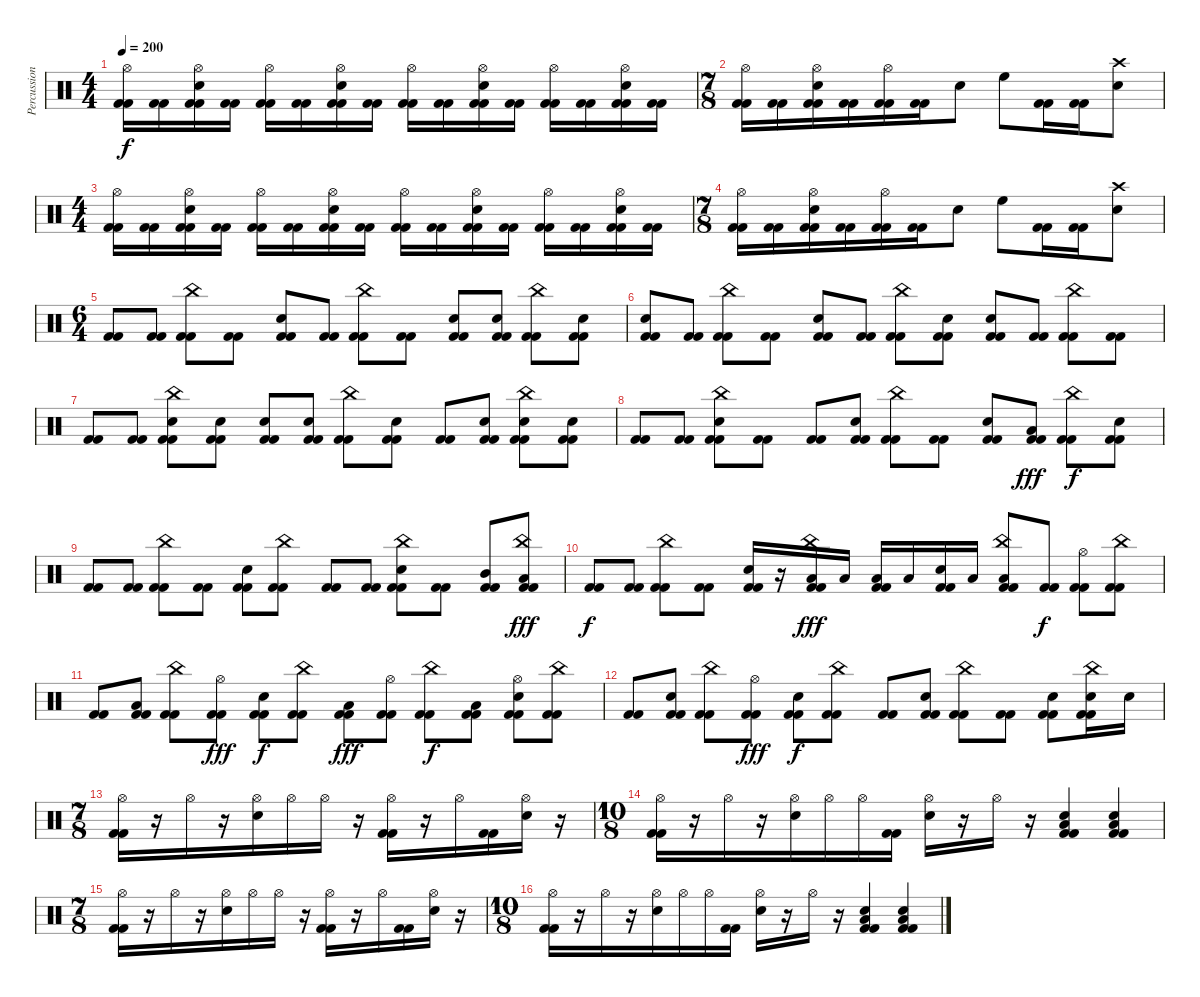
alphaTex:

\track ("Percussions" "Percussion") {instrument percussion}
\staff {score}
\articulation defaults
\ts (4 4)
\tempo 200
\clef neutral
\ks c
("Kick (hit) 2" "Kick (hit) 2" "Hi-Hat (open)").16{dy f} ("Kick (hit) 2" "Kick (hit) 2").16 ("Kick (hit) 2" "Kick (hit) 2" "Electric Snare (hit)" "Hi-Hat (open)").16 ("Kick (hit) 2" "Kick (hit) 2").16 ("Kick (hit) 2" "Kick (hit) 2" "Hi-Hat (open)").16 ("Kick (hit) 2" "Kick (hit) 2").16 ("Kick (hit) 2" "Kick (hit) 2" "Electric Snare (hit)" "Hi-Hat (open)").16 ("Kick (hit) 2" "Kick (hit) 2").16 ("Kick (hit) 2" "Kick (hit) 2" "Hi-Hat (open)").16 ("Kick (hit) 2" "Kick (hit) 2").16 ("Kick (hit) 2" "Kick (hit) 2" "Electric Snare (hit)" "Hi-Hat (open)").16 ("Kick (hit) 2" "Kick (hit) 2").16 ("Kick (hit) 2" "Kick (hit) 2" "Hi-Hat (open)").16 ("Kick (hit) 2" "Kick (hit) 2").16 ("Kick (hit) 2" "Kick (hit) 2" "Electric Snare (hit)" "Hi-Hat (open)").16 ("Kick (hit) 2" "Kick (hit) 2").16 |
\ts (7 8)
("Kick (hit) 2" "Kick (hit) 2" "Hi-Hat (open)").16 ("Kick (hit) 2" "Kick (hit) 2").16 ("Kick (hit) 2" "Kick (hit) 2" "Electric Snare (hit)" "Hi-Hat (open)").16 ("Kick (hit) 2" "Kick (hit) 2").16 ("Kick (hit) 2" "Kick (hit) 2" "Hi-Hat (open)").16 ("Kick (hit) 2" "Kick (hit) 2").16 "Electric Snare (hit)".8 "High Floor Tom (hit)".8 ("Kick (hit) 2" "Kick (hit) 2").16 ("Kick (hit) 2" "Kick (hit) 2").16 ("Electric Snare (hit)" "Crash high (hit)").8 |
\ts (4 4)
("Kick (hit) 2" "Kick (hit) 2" "Hi-Hat (open)").16 ("Kick (hit) 2" "Kick (hit) 2").16 ("Kick (hit) 2" "Kick (hit) 2" "Electric Snare (hit)" "Hi-Hat (open)").16 ("Kick (hit) 2" "Kick (hit) 2").16 ("Kick (hit) 2" "Kick (hit) 2" "Hi-Hat (open)").16 ("Kick (hit) 2" "Kick (hit) 2").16 ("Kick (hit) 2" "Kick (hit) 2" "Electric Snare (hit)" "Hi-Hat (open)").16 ("Kick (hit) 2" "Kick (hit) 2").16 ("Kick (hit) 2" "Kick (hit) 2" "Hi-Hat (open)").16 ("Kick (hit) 2" "Kick (hit) 2").16 ("Kick (hit) 2" "Kick (hit) 2" "Electric Snare (hit)" "Hi-Hat (open)").16 ("Kick (hit) 2" "Kick (hit) 2").16 ("Kick (hit) 2" "Kick (hit) 2" "Hi-Hat (open)").16 ("Kick (hit) 2" "Kick (hit) 2").16 ("Kick (hit) 2" "Kick (hit) 2" "Electric Snare (hit)" "Hi-Hat (open)").16 ("Kick (hit) 2" "Kick (hit) 2").16 |
\ts (7 8)
("Kick (hit) 2" "Kick (hit) 2" "Hi-Hat (open)").16 ("Kick (hit) 2" "Kick (hit) 2").16 ("Kick (hit) 2" "Kick (hit) 2" "Electric Snare (hit)" "Hi-Hat (open)").16 ("Kick (hit) 2" "Kick (hit) 2").16 ("Kick (hit) 2" "Kick (hit) 2" "Hi-Hat (open)").16 ("Kick (hit) 2" "Kick (hit) 2").16 "Electric Snare (hit)".8 "High Floor Tom (hit)".8 ("Kick (hit) 2" "Kick (hit) 2").16 ("Kick (hit) 2" "Kick (hit) 2").16 ("Electric Snare (hit)" "Crash high (hit)").8 |
\ts (6 4)
("Kick (hit) 2" "Kick (hit) 2").8 ("Kick (hit) 2" "Kick (hit) 2").8 ("Kick (hit) 2" "Kick (hit) 2" "China (hit)").8 ("Kick (hit) 2" "Kick (hit) 2").8 ("Kick (hit) 2" "Kick (hit) 2" "Electric Snare (hit)").8 ("Kick (hit) 2" "Kick (hit) 2").8 ("Kick (hit) 2" "Kick (hit) 2" "China (hit)").8 ("Kick (hit) 2" "Kick (hit) 2").8 ("Kick (hit) 2" "Kick (hit) 2" "Electric Snare (hit)").8 ("Kick (hit) 2" "Kick (hit) 2" "Electric Snare (hit)").8 ("Kick (hit) 2" "Kick (hit) 2" "China (hit)").8 ("Kick (hit) 2" "Kick (hit) 2" "Electric Snare (hit)").8 |
("Kick (hit) 2" "Kick (hit) 2" "Electric Snare (hit)").8 ("Kick (hit) 2" "Kick (hit) 2").8 ("Kick (hit) 2" "Kick (hit) 2" "China (hit)").8 ("Kick (hit) 2" "Kick (hit) 2").8 ("Kick (hit) 2" "Kick (hit) 2" "Electric Snare (hit)").8 ("Kick (hit) 2" "Kick (hit) 2").8 ("Kick (hit) 2" "Kick (hit) 2" "China (hit)").8 ("Kick (hit) 2" "Kick (hit) 2" "Electric Snare (hit)").8 ("Kick (hit) 2" "Kick (hit) 2" "Electric Snare (hit)").8 ("Kick (hit) 2" "Kick (hit) 2").8 ("Kick (hit) 2" "Kick (hit) 2" "China (hit)").8 ("Kick (hit) 2" "Kick (hit) 2").8 |
("Kick (hit) 2" "Kick (hit) 2").8 ("Kick (hit) 2" "Kick (hit) 2").8 ("Kick (hit) 2" "Kick (hit) 2" "Electric Snare (hit)" "China (hit)").8 ("Kick (hit) 2" "Kick (hit) 2" "Electric Snare (hit)").8 ("Kick (hit) 2" "Kick (hit) 2" "Electric Snare (hit)").8 ("Kick (hit) 2" "Kick (hit) 2" "Electric Snare (hit)").8 ("Kick (hit) 2" "Kick (hit) 2" "China (hit)").8 ("Kick (hit) 2" "Kick (hit) 2" "Electric Snare (hit)").8 ("Kick (hit) 2" "Kick (hit) 2").8 ("Kick (hit) 2" "Kick (hit) 2" "Electric Snare (hit)").8 ("Kick (hit) 2" "Kick (hit) 2" "Electric Snare (hit)" "China (hit)").8 ("Kick (hit) 2" "Kick (hit) 2" "Electric Snare (hit)").8 |
("Kick (hit) 2" "Kick (hit) 2").8 ("Kick (hit) 2" "Kick (hit) 2").8 ("Kick (hit) 2" "Kick (hit) 2" "Electric Snare (hit)" "China (hit)").8 ("Kick (hit) 2" "Kick (hit) 2").8 ("Kick (hit) 2" "Kick (hit) 2").8 ("Kick (hit) 2" "Kick (hit) 2" "Electric Snare (hit)").8 ("Kick (hit) 2" "Kick (hit) 2" "China (hit)").8 ("Kick (hit) 2" "Kick (hit) 2").8 ("Kick (hit) 2" "Kick (hit) 2" "Electric Snare (hit)").8 ("Kick (hit) 2" "Kick (hit) 2" "Low Tom (hit)").8{dy fff} ("Kick (hit) 2" "Kick (hit) 2" "China (hit)").8{dy f} ("Kick (hit) 2" "Kick (hit) 2" "Electric Snare (hit)").8 |
("Kick (hit) 2" "Kick (hit) 2").8 ("Kick (hit) 2" "Kick (hit) 2").8 ("Kick (hit) 2" "Kick (hit) 2" "China (hit)").8 ("Kick (hit) 2" "Kick (hit) 2").8 ("Kick (hit) 2" "Kick (hit) 2" "Electric Snare (hit)").8 ("Kick (hit) 2" "Kick (hit) 2" "China (hit)").8 ("Kick (hit) 2" "Kick (hit) 2").8 ("Kick (hit) 2" "Kick (hit) 2").8 ("Kick (hit) 2" "Kick (hit) 2" "Electric Snare (hit)" "China (hit)").8 ("Kick (hit) 2" "Kick (hit) 2").8 ("Kick (hit) 2" "Kick (hit) 2" "Mid Tom (hit)").8 ("Kick (hit) 2" "Kick (hit) 2" "Low Tom (hit)" "China (hit)").8{dy fff} |
("Kick (hit) 2" "Kick (hit) 2").8{dy f} ("Kick (hit) 2" "Kick (hit) 2").8 ("Kick (hit) 2" "Kick (hit) 2" "China (hit)").8 ("Kick (hit) 2" "Kick (hit) 2").8 ("Kick (hit) 2" "Kick (hit) 2" "Electric Snare (hit)").16 r.16 ("Kick (hit) 2" "Kick (hit) 2" "Low Tom (hit)" "China (hit)").16{dy fff} "Low Tom (hit)".16 ("Kick (hit) 2" "Kick (hit) 2" "Low Tom (hit)").16 "Low Tom (hit)".16 ("Kick (hit) 2" "Kick (hit) 2" "Electric Snare (hit)").16 "Low Tom (hit)".16 ("Kick (hit) 2" "Kick (hit) 2" "Low Tom (hit)" "China (hit)").8 ("Kick (hit) 2" "Kick (hit) 2").8{dy f} ("Kick (hit) 2" "Kick (hit) 2" "Hi-Hat (open)").8 ("Kick (hit) 2" "Kick (hit) 2" "China (hit)").8 |
("Kick (hit) 2" "Kick (hit) 2").8 ("Kick (hit) 2" "Kick (hit) 2" "Low Tom (hit)").8 ("Kick (hit) 2" "Kick (hit) 2" "China (hit)").8 ("Kick (hit) 2" "Kick (hit) 2" "Hi-Hat (open)").8{dy fff} ("Kick (hit) 2" "Kick (hit) 2" "Electric Snare (hit)").8{dy f} ("Kick (hit) 2" "Kick (hit) 2" "China (hit)").8 ("Kick (hit) 2" "Kick (hit) 2" "Low Tom (hit)").8{dy fff} ("Kick (hit) 2" "Kick (hit) 2" "Hi-Hat (open)").8 ("Kick (hit) 2" "Kick (hit) 2" "China (hit)").8{dy f} ("Kick (hit) 2" "Kick (hit) 2" "Low Tom (hit)").8 ("Kick (hit) 2" "Kick (hit) 2" "Electric Snare (hit)" "Hi-Hat (open)").8 ("Kick (hit) 2" "Kick (hit) 2" "China (hit)").8 |
("Kick (hit) 2" "Kick (hit) 2").8 ("Kick (hit) 2" "Kick (hit) 2" "Electric Snare (hit)").8 ("Kick (hit) 2" "Kick (hit) 2" "China (hit)").8 ("Kick (hit) 2" "Kick (hit) 2" "Hi-Hat (open)").8{dy fff} ("Kick (hit) 2" "Kick (hit) 2" "Electric Snare (hit)").8{dy f} ("Kick (hit) 2" "Kick (hit) 2" "China (hit)").8 ("Kick (hit) 2" "Kick (hit) 2").8 ("Kick (hit) 2" "Kick (hit) 2" "Electric Snare (hit)").8 ("Kick (hit) 2" "Kick (hit) 2" "China (hit)").8 ("Kick (hit) 2" "Kick (hit) 2").8 ("Kick (hit) 2" "Kick (hit) 2" "Electric Snare (hit)").8 ("Kick (hit) 2" "Kick (hit) 2" "Electric Snare (hit)" "China (hit)").16 "Electric Snare (hit)".16 |
\ts (7 8)
("Hi-Hat (open)" "Kick (hit) 2" "Kick (hit) 2").16 r.16 "Hi-Hat (open)".16 r.16 ("Hi-Hat (open)" "Electric Snare (hit)").16 "Hi-Hat (open)".16 "Hi-Hat (open)".16 r.16 ("Hi-Hat (open)" "Kick (hit) 2" "Kick (hit) 2").16 r.16 "Hi-Hat (open)".16 ("Kick (hit) 2" "Kick (hit) 2").16 ("Hi-Hat (open)" "Electric Snare (hit)").16 r.16 |
\ts (10 8)
("Hi-Hat (open)" "Kick (hit) 2" "Kick (hit) 2").16 r.16 "Hi-Hat (open)".16 r.16 ("Hi-Hat (open)" "Electric Snare (hit)").16 "Hi-Hat (open)".16 "Hi-Hat (open)".16 ("Kick (hit) 2" "Kick (hit) 2").16 ("Hi-Hat (open)" "Electric Snare (hit)").16 r.16 "Hi-Hat (open)".16 r.16 ("Electric Snare (hit)" "Low Floor Tom (hit)" "Kick (hit) 2" "Kick (hit) 2").4 ("Electric Snare (hit)" "Low Floor Tom (hit)" "Kick (hit) 2" "Kick (hit) 2").4 |
\ts (7 8)
("Hi-Hat (open)" "Kick (hit) 2" "Kick (hit) 2").16 r.16 "Hi-Hat (open)".16 r.16 ("Hi-Hat (open)" "Electric Snare (hit)").16 "Hi-Hat (open)".16 "Hi-Hat (open)".16 r.16 ("Hi-Hat (open)" "Kick (hit) 2" "Kick (hit) 2").16 r.16 "Hi-Hat (open)".16 ("Kick (hit) 2" "Kick (hit) 2").16 ("Hi-Hat (open)" "Electric Snare (hit)").16 r.16 |
\ts (10 8)
("Hi-Hat (open)" "Kick (hit) 2" "Kick (hit) 2").16 r.16 "Hi-Hat (open)".16 r.16 ("Hi-Hat (open)" "Electric Snare (hit)").16 "Hi-Hat (open)".16 "Hi-Hat (open)".16 ("Kick (hit) 2" "Kick (hit) 2").16 ("Hi-Hat (open)" "Electric Snare (hit)").16 r.16 "Hi-Hat (open)".16 r.16 ("Electric Snare (hit)" "Low Floor Tom (hit)" "Kick (hit) 2" "Kick (hit) 2").4 ("Electric Snare (hit)" "Low Floor Tom (hit)" "Kick (hit) 2" "Kick (hit) 2").4
